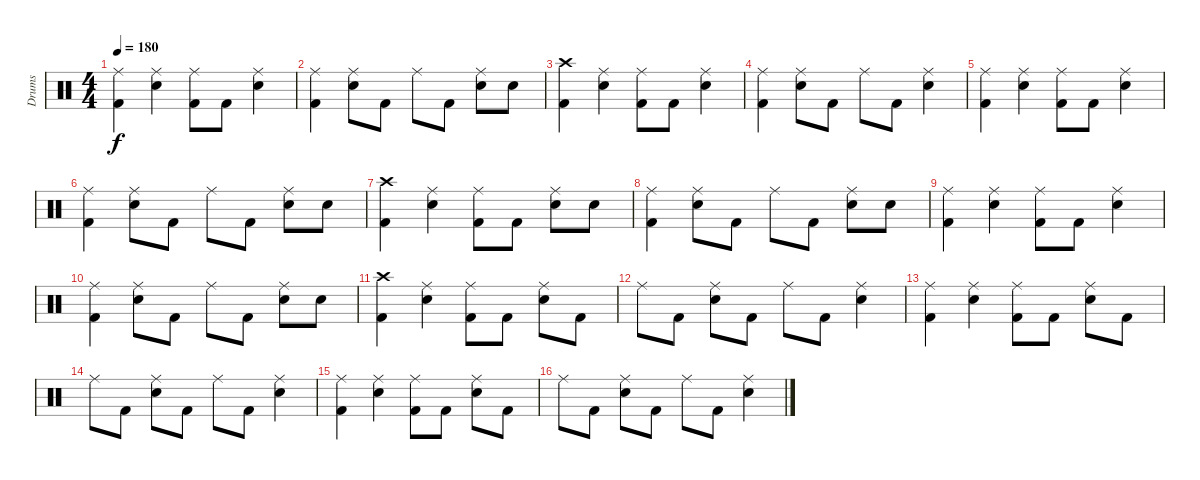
\track ("Drums" "Drums") {instrument percussion}
\staff {score}
\articulation defaults
\ts (4 4)
\tempo 180
\clef neutral
\ks c
("Ride (middle)" "Kick (hit) 2").4{dy f} ("Ride (middle)" "Electric Snare (hit)").4 ("Ride (middle)" "Kick (hit) 2").8 "Kick (hit) 2".8 ("Ride (middle)" "Electric Snare (hit)").4 |
("Ride (middle)" "Kick (hit) 2").4 ("Ride (middle)" "Electric Snare (hit)").8 "Kick (hit) 2".8 "Ride (middle)".8 "Kick (hit) 2".8 ("Ride (middle)" "Electric Snare (hit)").8 "Hand Clap (hit)".8 |
("Crash high (hit)" "Kick (hit) 2").4 ("Ride (middle)" "Electric Snare (hit)").4 ("Ride (middle)" "Kick (hit) 2").8 "Kick (hit) 2".8 ("Ride (middle)" "Electric Snare (hit)").4 |
("Ride (middle)" "Kick (hit) 2").4 ("Ride (middle)" "Electric Snare (hit)").8 "Kick (hit) 2".8 "Ride (middle)".8 "Kick (hit) 2".8 ("Ride (middle)" "Electric Snare (hit)").4 |
("Ride (middle)" "Kick (hit) 2").4 ("Ride (middle)" "Electric Snare (hit)").4 ("Ride (middle)" "Kick (hit) 2").8 "Kick (hit) 2".8 ("Ride (middle)" "Electric Snare (hit)").4 |
("Ride (middle)" "Kick (hit) 2").4 ("Ride (middle)" "Electric Snare (hit)").8 "Kick (hit) 2".8 "Ride (middle)".8 "Kick (hit) 2".8 ("Ride (middle)" "Electric Snare (hit)").8 "Hand Clap (hit)".8 |
("Crash high (hit)" "Kick (hit) 2").4 ("Ride (middle)" "Electric Snare (hit)").4 ("Ride (middle)" "Kick (hit) 2").8 "Kick (hit) 2".8 ("Ride (middle)" "Electric Snare (hit)").8 "Hand Clap (hit)".8 |
("Ride (middle)" "Kick (hit) 2").4 ("Ride (middle)" "Electric Snare (hit)").8 "Kick (hit) 2".8 "Ride (middle)".8 "Kick (hit) 2".8 ("Ride (middle)" "Electric Snare (hit)").8 "Electric Snare (hit)".8 |
("Ride (middle)" "Kick (hit) 2").4 ("Ride (middle)" "Electric Snare (hit)").4 ("Ride (middle)" "Kick (hit) 2").8 "Kick (hit) 2".8 ("Ride (middle)" "Electric Snare (hit)").4 |
("Ride (middle)" "Kick (hit) 2").4 ("Ride (middle)" "Electric Snare (hit)").8 "Kick (hit) 2".8 "Ride (middle)".8 "Kick (hit) 2".8 ("Ride (middle)" "Electric Snare (hit)").8 "Hand Clap (hit)".8 |
("Crash high (hit)" "Kick (hit) 2").4 ("Ride (middle)" "Electric Snare (hit)").4 ("Ride (middle)" "Kick (hit) 2").8 "Kick (hit) 2".8 ("Ride (middle)" "Electric Snare (hit)").8 "Kick (hit) 2".8 |
"Ride (middle)".8 "Kick (hit) 2".8 ("Ride (middle)" "Electric Snare (hit)").8 "Kick (hit) 2".8 "Ride (middle)".8 "Kick (hit) 2".8 ("Ride (middle)" "Electric Snare (hit)").4 |
("Ride (middle)" "Kick (hit) 2").4 ("Ride (middle)" "Electric Snare (hit)").4 ("Ride (middle)" "Kick (hit) 2").8 "Kick (hit) 2".8 ("Ride (middle)" "Electric Snare (hit)").8 "Kick (hit) 2".8 |
"Ride (middle)".8 "Kick (hit) 2".8 ("Ride (middle)" "Electric Snare (hit)").8 "Kick (hit) 2".8 "Ride (middle)".8 "Kick (hit) 2".8 ("Ride (middle)" "Electric Snare (hit)").4 |
("Ride (middle)" "Kick (hit) 2").4 ("Ride (middle)" "Electric Snare (hit)").4 ("Ride (middle)" "Kick (hit) 2").8 "Kick (hit) 2".8 ("Ride (middle)" "Electric Snare (hit)").8 "Kick (hit) 2".8 |
"Ride (middle)".8 "Kick (hit) 2".8 ("Ride (middle)" "Electric Snare (hit)").8 "Kick (hit) 2".8 "Ride (middle)".8 "Kick (hit) 2".8 ("Ride (middle)" "Electric Snare (hit)").4
